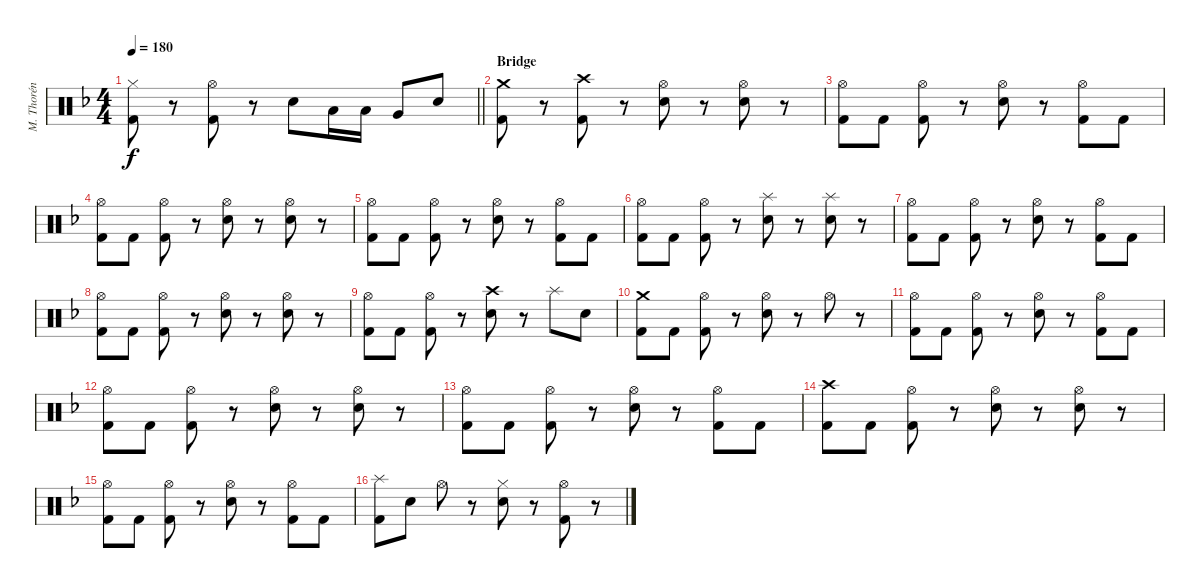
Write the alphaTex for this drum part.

\track ("M. Thorén (Drums)" "M. Thorén ") {instrument percussion}
\staff {score}
\articulation defaults
\ts (4 4)
\tempo 180
\clef neutral
\barLineRight lightlight
\ks dminor
("Hi-Hat (closed)" "Kick (hit) 2").8{dy f} r.8 ("Hi-Hat (open)" "Kick (hit) 2").8 r.8 "Electric Snare (hit)".8 "Low Tom (hit)".16 "Low Tom (hit)".16 "Very Low Tom (hit)".8 "Electric Snare (hit)".8 |
\section ("" "Bridge")
("Crash medium (hit)" "Kick (hit) 2").8 r.8 ("Crash high (hit)" "Kick (hit) 2").8 r.8 ("Hi-Hat (open)" "Electric Snare (hit)").8 r.8 ("Hi-Hat (open)" "Electric Snare (hit)").8 r.8 |
("Hi-Hat (open)" "Kick (hit) 2").8 "Kick (hit) 2".8 ("Hi-Hat (open)" "Kick (hit) 2").8 r.8 ("Hi-Hat (open)" "Electric Snare (hit)").8 r.8 ("Hi-Hat (open)" "Kick (hit) 2").8 "Kick (hit) 2".8 |
("Hi-Hat (open)" "Kick (hit) 2").8 "Kick (hit) 2".8 ("Hi-Hat (open)" "Kick (hit) 2").8 r.8 ("Hi-Hat (open)" "Electric Snare (hit)").8 r.8 ("Hi-Hat (open)" "Electric Snare (hit)").8 r.8 |
("Hi-Hat (open)" "Kick (hit) 2").8 "Kick (hit) 2".8 ("Hi-Hat (open)" "Kick (hit) 2").8 r.8 ("Hi-Hat (open)" "Electric Snare (hit)").8 r.8 ("Hi-Hat (open)" "Kick (hit) 2").8 "Kick (hit) 2".8 |
("Hi-Hat (open)" "Kick (hit) 2").8 "Kick (hit) 2".8 ("Hi-Hat (open)" "Kick (hit) 2").8 r.8 ("Splash (hit)" "Electric Snare (hit)").8 r.8 ("Splash (hit)" "Electric Snare (hit)").8 r.8 |
("Hi-Hat (open)" "Kick (hit) 2").8 "Kick (hit) 2".8 ("Hi-Hat (open)" "Kick (hit) 2").8 r.8 ("Hi-Hat (open)" "Electric Snare (hit)").8 r.8 ("Hi-Hat (open)" "Kick (hit) 2").8 "Kick (hit) 2".8 |
("Hi-Hat (open)" "Kick (hit) 2").8 "Kick (hit) 2".8 ("Hi-Hat (open)" "Kick (hit) 2").8 r.8 ("Hi-Hat (open)" "Electric Snare (hit)").8 r.8 ("Hi-Hat (open)" "Electric Snare (hit)").8 r.8 |
("Hi-Hat (open)" "Kick (hit) 2").8 "Kick (hit) 2".8 ("Hi-Hat (open)" "Kick (hit) 2").8 r.8 ("Crash high (hit)" "Electric Snare (hit)").8 r.8 "Splash (hit)".8 "Electric Snare (hit)".8 |
("Crash medium (hit)" "Kick (hit) 2").8 "Kick (hit) 2".8 ("Hi-Hat (open)" "Kick (hit) 2").8 r.8 ("Hi-Hat (open)" "Electric Snare (hit)").8 r.8 "Hi-Hat (open)".8 r.8 |
("Hi-Hat (open)" "Kick (hit) 2").8 "Kick (hit) 2".8 ("Hi-Hat (open)" "Kick (hit) 2").8 r.8 ("Hi-Hat (open)" "Electric Snare (hit)").8 r.8 ("Hi-Hat (open)" "Kick (hit) 2").8 "Kick (hit) 2".8 |
("Hi-Hat (open)" "Kick (hit) 2").8 "Kick (hit) 2".8 ("Hi-Hat (open)" "Kick (hit) 2").8 r.8 ("Hi-Hat (open)" "Electric Snare (hit)").8 r.8 ("Hi-Hat (open)" "Electric Snare (hit)").8 r.8 |
("Hi-Hat (open)" "Kick (hit) 2").8 "Kick (hit) 2".8 ("Hi-Hat (open)" "Kick (hit) 2").8 r.8 ("Hi-Hat (open)" "Electric Snare (hit)").8 r.8 ("Hi-Hat (open)" "Kick (hit) 2").8 "Kick (hit) 2".8 |
("Crash high (hit)" "Kick (hit) 2").8 "Kick (hit) 2".8 ("Hi-Hat (open)" "Kick (hit) 2").8 r.8 ("Hi-Hat (open)" "Electric Snare (hit)").8 r.8 ("Hi-Hat (open)" "Electric Snare (hit)").8 r.8 |
("Hi-Hat (open)" "Kick (hit) 2").8 "Kick (hit) 2".8 ("Hi-Hat (open)" "Kick (hit) 2").8 r.8 ("Hi-Hat (open)" "Electric Snare (hit)").8 r.8 ("Hi-Hat (open)" "Kick (hit) 2").8 "Kick (hit) 2".8 |
("Splash (hit)" "Kick (hit) 2").8 "Electric Snare (hit)".8 "Hi-Hat (open)".8 r.8 ("Hi-Hat (closed)" "Electric Snare (hit)").8 r.8 ("Hi-Hat (open)" "Kick (hit) 2").8 r.8
